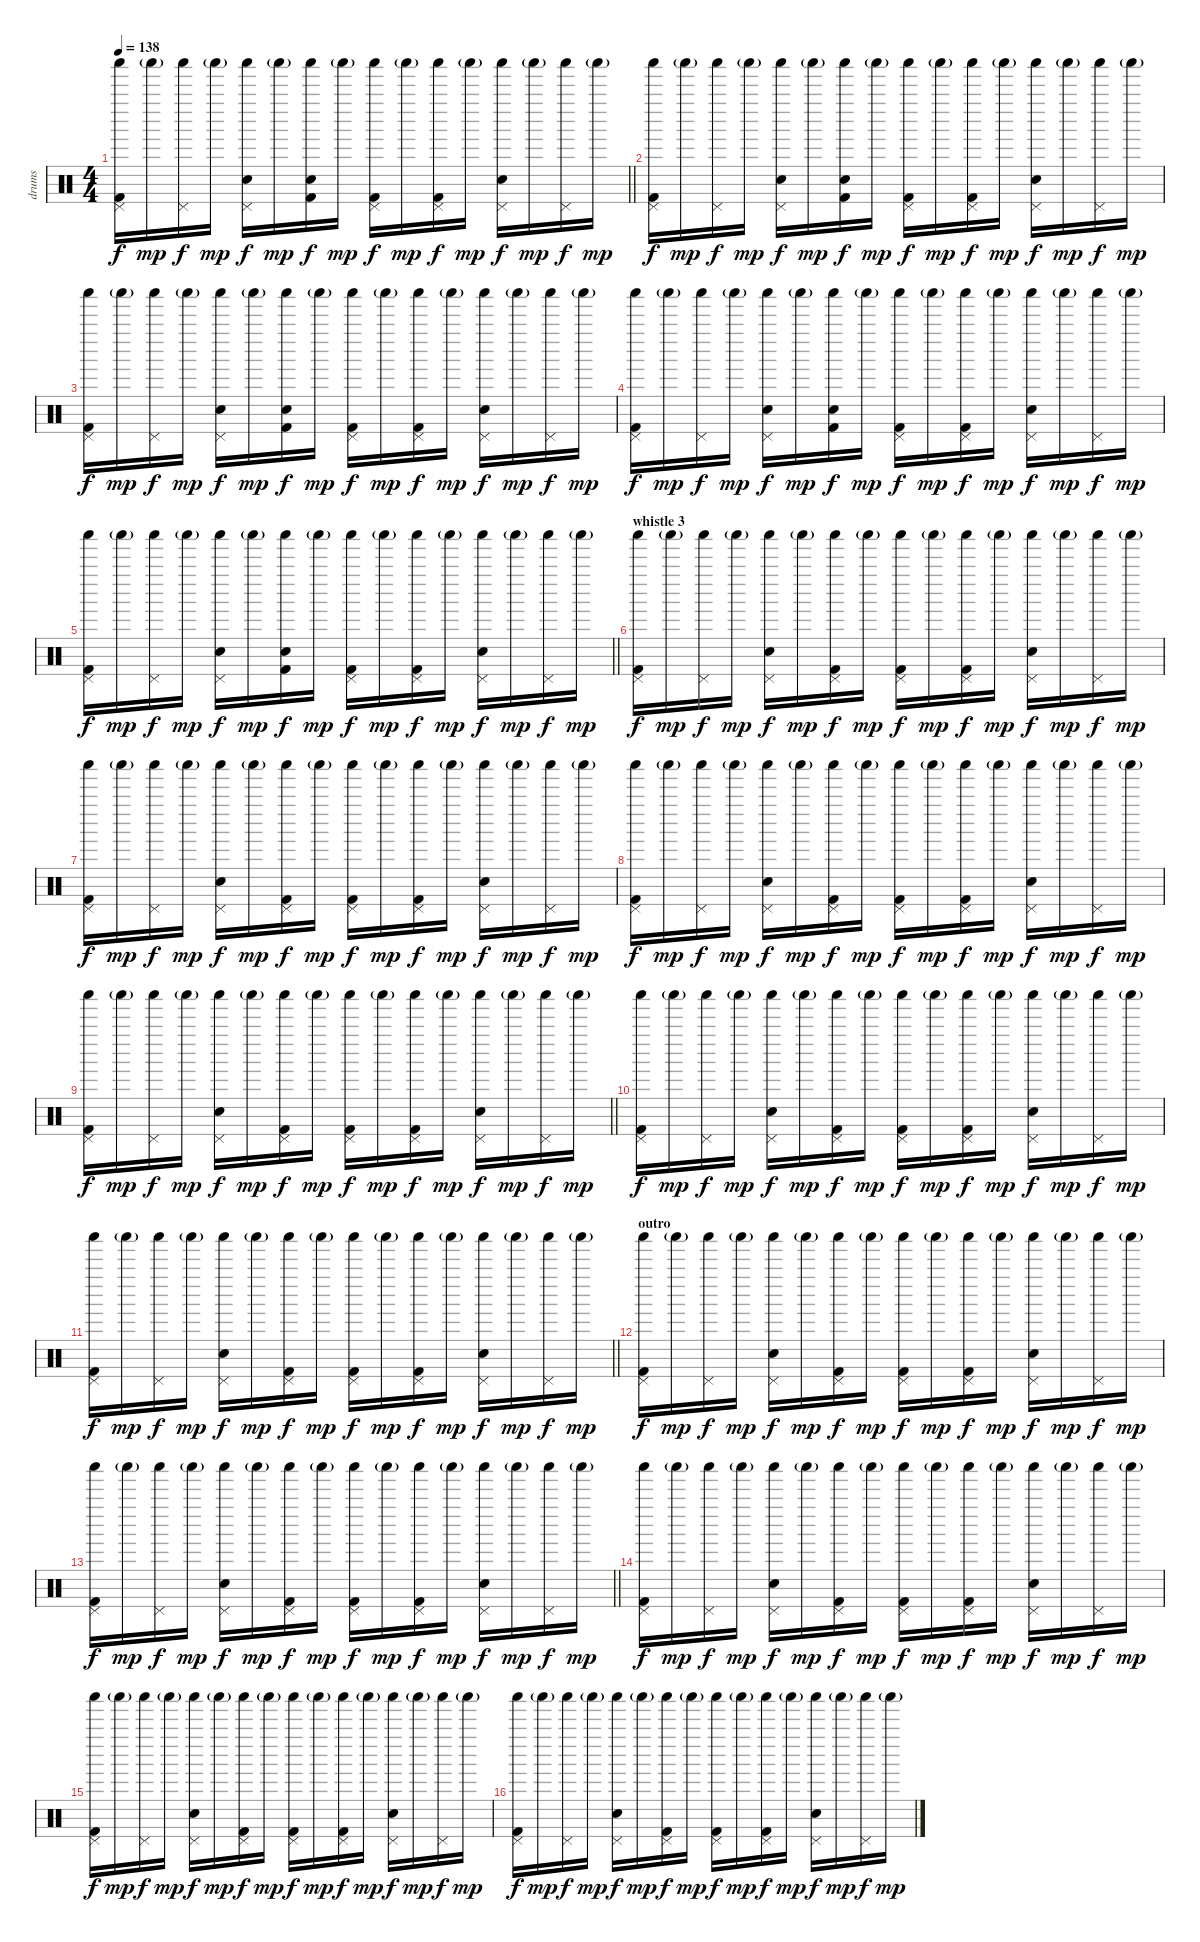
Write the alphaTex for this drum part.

\track ("drums" "drums") {instrument percussion}
\staff {score}
\articulation defaults
\ts (4 4)
\tempo 138
\clef neutral
\barLineRight lightlight
\ks c
("Kick (hit) 2" "Pedal Hi-Hat (hit)" "Shaker (hit)").16{dy f} "Shaker (hit)"{g}.16{dy mp} ("Pedal Hi-Hat (hit)" "Shaker (hit)").16{dy f} "Shaker (hit)"{g}.16{dy mp} ("Electric Snare (hit)" "Pedal Hi-Hat (hit)" "Shaker (hit)").16{dy f} "Shaker (hit)"{g}.16{dy mp} ("Kick (hit) 2" "Snare (hit)" "Shaker (hit)").16{dy f} "Shaker (hit)"{g}.16{dy mp} ("Kick (hit) 2" "Pedal Hi-Hat (hit)" "Shaker (hit)").16{dy f} "Shaker (hit)"{g}.16{dy mp} ("Kick (hit) 2" "Pedal Hi-Hat (hit)" "Shaker (hit)").16{dy f} "Shaker (hit)"{g}.16{dy mp} ("Electric Snare (hit)" "Pedal Hi-Hat (hit)" "Shaker (hit)").16{dy f} "Shaker (hit)"{g}.16{dy mp} ("Pedal Hi-Hat (hit)" "Shaker (hit)").16{dy f} "Shaker (hit)"{g}.16{dy mp} |
("Kick (hit) 2" "Pedal Hi-Hat (hit)" "Shaker (hit)").16{dy f} "Shaker (hit)"{g}.16{dy mp} ("Pedal Hi-Hat (hit)" "Shaker (hit)").16{dy f} "Shaker (hit)"{g}.16{dy mp} ("Electric Snare (hit)" "Pedal Hi-Hat (hit)" "Shaker (hit)").16{dy f} "Shaker (hit)"{g}.16{dy mp} ("Kick (hit) 2" "Snare (hit)" "Shaker (hit)").16{dy f} "Shaker (hit)"{g}.16{dy mp} ("Kick (hit) 2" "Pedal Hi-Hat (hit)" "Shaker (hit)").16{dy f} "Shaker (hit)"{g}.16{dy mp} ("Kick (hit) 2" "Pedal Hi-Hat (hit)" "Shaker (hit)").16{dy f} "Shaker (hit)"{g}.16{dy mp} ("Electric Snare (hit)" "Pedal Hi-Hat (hit)" "Shaker (hit)").16{dy f} "Shaker (hit)"{g}.16{dy mp} ("Pedal Hi-Hat (hit)" "Shaker (hit)").16{dy f} "Shaker (hit)"{g}.16{dy mp} |
("Kick (hit) 2" "Pedal Hi-Hat (hit)" "Shaker (hit)").16{dy f} "Shaker (hit)"{g}.16{dy mp} ("Pedal Hi-Hat (hit)" "Shaker (hit)").16{dy f} "Shaker (hit)"{g}.16{dy mp} ("Electric Snare (hit)" "Pedal Hi-Hat (hit)" "Shaker (hit)").16{dy f} "Shaker (hit)"{g}.16{dy mp} ("Kick (hit) 2" "Snare (hit)" "Shaker (hit)").16{dy f} "Shaker (hit)"{g}.16{dy mp} ("Kick (hit) 2" "Pedal Hi-Hat (hit)" "Shaker (hit)").16{dy f} "Shaker (hit)"{g}.16{dy mp} ("Kick (hit) 2" "Pedal Hi-Hat (hit)" "Shaker (hit)").16{dy f} "Shaker (hit)"{g}.16{dy mp} ("Electric Snare (hit)" "Pedal Hi-Hat (hit)" "Shaker (hit)").16{dy f} "Shaker (hit)"{g}.16{dy mp} ("Pedal Hi-Hat (hit)" "Shaker (hit)").16{dy f} "Shaker (hit)"{g}.16{dy mp} |
("Kick (hit) 2" "Pedal Hi-Hat (hit)" "Shaker (hit)").16{dy f} "Shaker (hit)"{g}.16{dy mp} ("Pedal Hi-Hat (hit)" "Shaker (hit)").16{dy f} "Shaker (hit)"{g}.16{dy mp} ("Electric Snare (hit)" "Pedal Hi-Hat (hit)" "Shaker (hit)").16{dy f} "Shaker (hit)"{g}.16{dy mp} ("Kick (hit) 2" "Snare (hit)" "Shaker (hit)").16{dy f} "Shaker (hit)"{g}.16{dy mp} ("Kick (hit) 2" "Pedal Hi-Hat (hit)" "Shaker (hit)").16{dy f} "Shaker (hit)"{g}.16{dy mp} ("Kick (hit) 2" "Pedal Hi-Hat (hit)" "Shaker (hit)").16{dy f} "Shaker (hit)"{g}.16{dy mp} ("Electric Snare (hit)" "Pedal Hi-Hat (hit)" "Shaker (hit)").16{dy f} "Shaker (hit)"{g}.16{dy mp} ("Pedal Hi-Hat (hit)" "Shaker (hit)").16{dy f} "Shaker (hit)"{g}.16{dy mp} |
\barLineRight lightlight
("Kick (hit) 2" "Pedal Hi-Hat (hit)" "Shaker (hit)").16{dy f} "Shaker (hit)"{g}.16{dy mp} ("Pedal Hi-Hat (hit)" "Shaker (hit)").16{dy f} "Shaker (hit)"{g}.16{dy mp} ("Electric Snare (hit)" "Pedal Hi-Hat (hit)" "Shaker (hit)").16{dy f} "Shaker (hit)"{g}.16{dy mp} ("Kick (hit) 2" "Snare (hit)" "Shaker (hit)").16{dy f} "Shaker (hit)"{g}.16{dy mp} ("Kick (hit) 2" "Pedal Hi-Hat (hit)" "Shaker (hit)").16{dy f} "Shaker (hit)"{g}.16{dy mp} ("Kick (hit) 2" "Pedal Hi-Hat (hit)" "Shaker (hit)").16{dy f} "Shaker (hit)"{g}.16{dy mp} ("Electric Snare (hit)" "Pedal Hi-Hat (hit)" "Shaker (hit)").16{dy f} "Shaker (hit)"{g}.16{dy mp} ("Pedal Hi-Hat (hit)" "Shaker (hit)").16{dy f} "Shaker (hit)"{g}.16{dy mp} |
\section ("" "whistle 3")
("Kick (hit) 2" "Pedal Hi-Hat (hit)" "Shaker (hit)").16{dy f} "Shaker (hit)"{g}.16{dy mp} ("Pedal Hi-Hat (hit)" "Shaker (hit)").16{dy f} "Shaker (hit)"{g}.16{dy mp} ("Electric Snare (hit)" "Pedal Hi-Hat (hit)" "Shaker (hit)").16{dy f} "Shaker (hit)"{g}.16{dy mp} ("Kick (hit) 2" "Pedal Hi-Hat (hit)" "Shaker (hit)").16{dy f} "Shaker (hit)"{g}.16{dy mp} ("Kick (hit) 2" "Pedal Hi-Hat (hit)" "Shaker (hit)").16{dy f} "Shaker (hit)"{g}.16{dy mp} ("Kick (hit) 2" "Pedal Hi-Hat (hit)" "Shaker (hit)").16{dy f} "Shaker (hit)"{g}.16{dy mp} ("Electric Snare (hit)" "Pedal Hi-Hat (hit)" "Shaker (hit)").16{dy f} "Shaker (hit)"{g}.16{dy mp} ("Pedal Hi-Hat (hit)" "Shaker (hit)").16{dy f} "Shaker (hit)"{g}.16{dy mp} |
("Kick (hit) 2" "Pedal Hi-Hat (hit)" "Shaker (hit)").16{dy f} "Shaker (hit)"{g}.16{dy mp} ("Pedal Hi-Hat (hit)" "Shaker (hit)").16{dy f} "Shaker (hit)"{g}.16{dy mp} ("Electric Snare (hit)" "Pedal Hi-Hat (hit)" "Shaker (hit)").16{dy f} "Shaker (hit)"{g}.16{dy mp} ("Kick (hit) 2" "Pedal Hi-Hat (hit)" "Shaker (hit)").16{dy f} "Shaker (hit)"{g}.16{dy mp} ("Kick (hit) 2" "Pedal Hi-Hat (hit)" "Shaker (hit)").16{dy f} "Shaker (hit)"{g}.16{dy mp} ("Kick (hit) 2" "Pedal Hi-Hat (hit)" "Shaker (hit)").16{dy f} "Shaker (hit)"{g}.16{dy mp} ("Electric Snare (hit)" "Pedal Hi-Hat (hit)" "Shaker (hit)").16{dy f} "Shaker (hit)"{g}.16{dy mp} ("Pedal Hi-Hat (hit)" "Shaker (hit)").16{dy f} "Shaker (hit)"{g}.16{dy mp} |
("Kick (hit) 2" "Pedal Hi-Hat (hit)" "Shaker (hit)").16{dy f} "Shaker (hit)"{g}.16{dy mp} ("Pedal Hi-Hat (hit)" "Shaker (hit)").16{dy f} "Shaker (hit)"{g}.16{dy mp} ("Electric Snare (hit)" "Pedal Hi-Hat (hit)" "Shaker (hit)").16{dy f} "Shaker (hit)"{g}.16{dy mp} ("Kick (hit) 2" "Pedal Hi-Hat (hit)" "Shaker (hit)").16{dy f} "Shaker (hit)"{g}.16{dy mp} ("Kick (hit) 2" "Pedal Hi-Hat (hit)" "Shaker (hit)").16{dy f} "Shaker (hit)"{g}.16{dy mp} ("Kick (hit) 2" "Pedal Hi-Hat (hit)" "Shaker (hit)").16{dy f} "Shaker (hit)"{g}.16{dy mp} ("Electric Snare (hit)" "Pedal Hi-Hat (hit)" "Shaker (hit)").16{dy f} "Shaker (hit)"{g}.16{dy mp} ("Pedal Hi-Hat (hit)" "Shaker (hit)").16{dy f} "Shaker (hit)"{g}.16{dy mp} |
\barLineRight lightlight
("Kick (hit) 2" "Pedal Hi-Hat (hit)" "Shaker (hit)").16{dy f} "Shaker (hit)"{g}.16{dy mp} ("Pedal Hi-Hat (hit)" "Shaker (hit)").16{dy f} "Shaker (hit)"{g}.16{dy mp} ("Electric Snare (hit)" "Pedal Hi-Hat (hit)" "Shaker (hit)").16{dy f} "Shaker (hit)"{g}.16{dy mp} ("Kick (hit) 2" "Pedal Hi-Hat (hit)" "Shaker (hit)").16{dy f} "Shaker (hit)"{g}.16{dy mp} ("Kick (hit) 2" "Pedal Hi-Hat (hit)" "Shaker (hit)").16{dy f} "Shaker (hit)"{g}.16{dy mp} ("Kick (hit) 2" "Pedal Hi-Hat (hit)" "Shaker (hit)").16{dy f} "Shaker (hit)"{g}.16{dy mp} ("Electric Snare (hit)" "Pedal Hi-Hat (hit)" "Shaker (hit)").16{dy f} "Shaker (hit)"{g}.16{dy mp} ("Pedal Hi-Hat (hit)" "Shaker (hit)").16{dy f} "Shaker (hit)"{g}.16{dy mp} |
("Kick (hit) 2" "Pedal Hi-Hat (hit)" "Shaker (hit)").16{dy f} "Shaker (hit)"{g}.16{dy mp} ("Pedal Hi-Hat (hit)" "Shaker (hit)").16{dy f} "Shaker (hit)"{g}.16{dy mp} ("Electric Snare (hit)" "Pedal Hi-Hat (hit)" "Shaker (hit)").16{dy f} "Shaker (hit)"{g}.16{dy mp} ("Kick (hit) 2" "Pedal Hi-Hat (hit)" "Shaker (hit)").16{dy f} "Shaker (hit)"{g}.16{dy mp} ("Kick (hit) 2" "Pedal Hi-Hat (hit)" "Shaker (hit)").16{dy f} "Shaker (hit)"{g}.16{dy mp} ("Kick (hit) 2" "Pedal Hi-Hat (hit)" "Shaker (hit)").16{dy f} "Shaker (hit)"{g}.16{dy mp} ("Electric Snare (hit)" "Pedal Hi-Hat (hit)" "Shaker (hit)").16{dy f} "Shaker (hit)"{g}.16{dy mp} ("Pedal Hi-Hat (hit)" "Shaker (hit)").16{dy f} "Shaker (hit)"{g}.16{dy mp} |
\barLineRight lightlight
("Kick (hit) 2" "Pedal Hi-Hat (hit)" "Shaker (hit)").16{dy f} "Shaker (hit)"{g}.16{dy mp} ("Pedal Hi-Hat (hit)" "Shaker (hit)").16{dy f} "Shaker (hit)"{g}.16{dy mp} ("Electric Snare (hit)" "Pedal Hi-Hat (hit)" "Shaker (hit)").16{dy f} "Shaker (hit)"{g}.16{dy mp} ("Kick (hit) 2" "Pedal Hi-Hat (hit)" "Shaker (hit)").16{dy f} "Shaker (hit)"{g}.16{dy mp} ("Kick (hit) 2" "Pedal Hi-Hat (hit)" "Shaker (hit)").16{dy f} "Shaker (hit)"{g}.16{dy mp} ("Kick (hit) 2" "Pedal Hi-Hat (hit)" "Shaker (hit)").16{dy f} "Shaker (hit)"{g}.16{dy mp} ("Electric Snare (hit)" "Pedal Hi-Hat (hit)" "Shaker (hit)").16{dy f} "Shaker (hit)"{g}.16{dy mp} ("Pedal Hi-Hat (hit)" "Shaker (hit)").16{dy f} "Shaker (hit)"{g}.16{dy mp} |
\section ("" "outro")
("Kick (hit) 2" "Pedal Hi-Hat (hit)" "Shaker (hit)").16{dy f} "Shaker (hit)"{g}.16{dy mp} ("Pedal Hi-Hat (hit)" "Shaker (hit)").16{dy f} "Shaker (hit)"{g}.16{dy mp} ("Electric Snare (hit)" "Pedal Hi-Hat (hit)" "Shaker (hit)").16{dy f} "Shaker (hit)"{g}.16{dy mp} ("Kick (hit) 2" "Pedal Hi-Hat (hit)" "Shaker (hit)").16{dy f} "Shaker (hit)"{g}.16{dy mp} ("Kick (hit) 2" "Pedal Hi-Hat (hit)" "Shaker (hit)").16{dy f} "Shaker (hit)"{g}.16{dy mp} ("Kick (hit) 2" "Pedal Hi-Hat (hit)" "Shaker (hit)").16{dy f} "Shaker (hit)"{g}.16{dy mp} ("Electric Snare (hit)" "Pedal Hi-Hat (hit)" "Shaker (hit)").16{dy f} "Shaker (hit)"{g}.16{dy mp} ("Pedal Hi-Hat (hit)" "Shaker (hit)").16{dy f} "Shaker (hit)"{g}.16{dy mp} |
\barLineRight lightlight
("Kick (hit) 2" "Pedal Hi-Hat (hit)" "Shaker (hit)").16{dy f} "Shaker (hit)"{g}.16{dy mp} ("Pedal Hi-Hat (hit)" "Shaker (hit)").16{dy f} "Shaker (hit)"{g}.16{dy mp} ("Electric Snare (hit)" "Pedal Hi-Hat (hit)" "Shaker (hit)").16{dy f} "Shaker (hit)"{g}.16{dy mp} ("Kick (hit) 2" "Pedal Hi-Hat (hit)" "Shaker (hit)").16{dy f} "Shaker (hit)"{g}.16{dy mp} ("Kick (hit) 2" "Pedal Hi-Hat (hit)" "Shaker (hit)").16{dy f} "Shaker (hit)"{g}.16{dy mp} ("Kick (hit) 2" "Pedal Hi-Hat (hit)" "Shaker (hit)").16{dy f} "Shaker (hit)"{g}.16{dy mp} ("Electric Snare (hit)" "Pedal Hi-Hat (hit)" "Shaker (hit)").16{dy f} "Shaker (hit)"{g}.16{dy mp} ("Pedal Hi-Hat (hit)" "Shaker (hit)").16{dy f} "Shaker (hit)"{g}.16{dy mp} |
("Kick (hit) 2" "Pedal Hi-Hat (hit)" "Shaker (hit)").16{dy f} "Shaker (hit)"{g}.16{dy mp} ("Pedal Hi-Hat (hit)" "Shaker (hit)").16{dy f} "Shaker (hit)"{g}.16{dy mp} ("Electric Snare (hit)" "Pedal Hi-Hat (hit)" "Shaker (hit)").16{dy f} "Shaker (hit)"{g}.16{dy mp} ("Kick (hit) 2" "Pedal Hi-Hat (hit)" "Shaker (hit)").16{dy f} "Shaker (hit)"{g}.16{dy mp} ("Kick (hit) 2" "Pedal Hi-Hat (hit)" "Shaker (hit)").16{dy f} "Shaker (hit)"{g}.16{dy mp} ("Kick (hit) 2" "Pedal Hi-Hat (hit)" "Shaker (hit)").16{dy f} "Shaker (hit)"{g}.16{dy mp} ("Electric Snare (hit)" "Pedal Hi-Hat (hit)" "Shaker (hit)").16{dy f} "Shaker (hit)"{g}.16{dy mp} ("Pedal Hi-Hat (hit)" "Shaker (hit)").16{dy f} "Shaker (hit)"{g}.16{dy mp} |
("Kick (hit) 2" "Pedal Hi-Hat (hit)" "Shaker (hit)").16{dy f} "Shaker (hit)"{g}.16{dy mp} ("Pedal Hi-Hat (hit)" "Shaker (hit)").16{dy f} "Shaker (hit)"{g}.16{dy mp} ("Electric Snare (hit)" "Pedal Hi-Hat (hit)" "Shaker (hit)").16{dy f} "Shaker (hit)"{g}.16{dy mp} ("Kick (hit) 2" "Pedal Hi-Hat (hit)" "Shaker (hit)").16{dy f} "Shaker (hit)"{g}.16{dy mp} ("Kick (hit) 2" "Pedal Hi-Hat (hit)" "Shaker (hit)").16{dy f} "Shaker (hit)"{g}.16{dy mp} ("Kick (hit) 2" "Pedal Hi-Hat (hit)" "Shaker (hit)").16{dy f} "Shaker (hit)"{g}.16{dy mp} ("Electric Snare (hit)" "Pedal Hi-Hat (hit)" "Shaker (hit)").16{dy f} "Shaker (hit)"{g}.16{dy mp} ("Pedal Hi-Hat (hit)" "Shaker (hit)").16{dy f} "Shaker (hit)"{g}.16{dy mp} |
("Kick (hit) 2" "Pedal Hi-Hat (hit)" "Shaker (hit)").16{dy f} "Shaker (hit)"{g}.16{dy mp} ("Pedal Hi-Hat (hit)" "Shaker (hit)").16{dy f} "Shaker (hit)"{g}.16{dy mp} ("Electric Snare (hit)" "Pedal Hi-Hat (hit)" "Shaker (hit)").16{dy f} "Shaker (hit)"{g}.16{dy mp} ("Kick (hit) 2" "Pedal Hi-Hat (hit)" "Shaker (hit)").16{dy f} "Shaker (hit)"{g}.16{dy mp} ("Kick (hit) 2" "Pedal Hi-Hat (hit)" "Shaker (hit)").16{dy f} "Shaker (hit)"{g}.16{dy mp} ("Kick (hit) 2" "Pedal Hi-Hat (hit)" "Shaker (hit)").16{dy f} "Shaker (hit)"{g}.16{dy mp} ("Electric Snare (hit)" "Pedal Hi-Hat (hit)" "Shaker (hit)").16{dy f} "Shaker (hit)"{g}.16{dy mp} ("Pedal Hi-Hat (hit)" "Shaker (hit)").16{dy f} "Shaker (hit)"{g}.16{dy mp}
